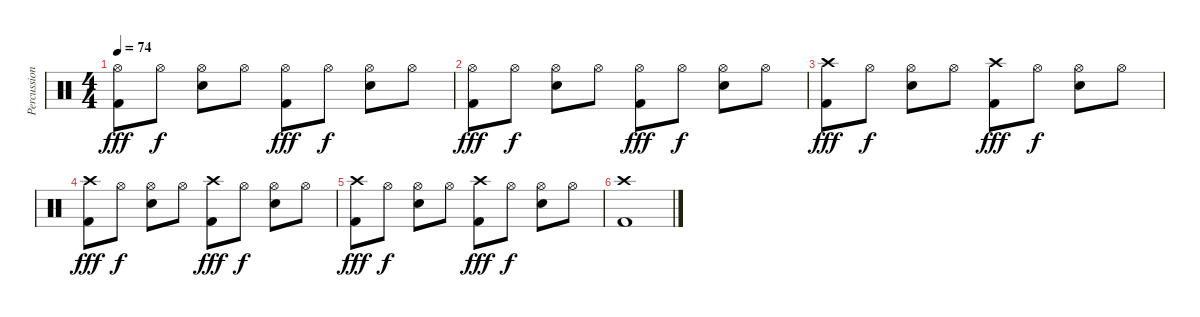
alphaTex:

\track ("Percussion" "Percussion") {instrument percussion}
\staff {score}
\articulation defaults
\ts (4 4)
\tempo 74
\clef neutral
\ks c
("Hi-Hat (open)" "Kick (hit) 2").8{dy fff} "Hi-Hat (open)".8{dy f} ("Hi-Hat (open)" "Snare (hit) 2").8 "Hi-Hat (open)".8 ("Hi-Hat (open)" "Kick (hit) 2").8{dy fff} "Hi-Hat (open)".8{dy f} ("Hi-Hat (open)" "Snare (hit) 2").8 "Hi-Hat (open)".8 |
("Hi-Hat (open)" "Kick (hit) 2").8{dy fff} "Hi-Hat (open)".8{dy f} ("Hi-Hat (open)" "Snare (hit) 2").8 "Hi-Hat (open)".8 ("Hi-Hat (open)" "Kick (hit) 2").8{dy fff} "Hi-Hat (open)".8{dy f} ("Hi-Hat (open)" "Snare (hit) 2").8 "Hi-Hat (open)".8 |
("Crash high (hit)" "Kick (hit) 2").8{dy fff} "Hi-Hat (open)".8{dy f} ("Hi-Hat (open)" "Snare (hit) 2").8 "Hi-Hat (open)".8 ("Crash high (hit)" "Kick (hit) 2").8{dy fff} "Hi-Hat (open)".8{dy f} ("Hi-Hat (open)" "Snare (hit) 2").8 "Hi-Hat (open)".8 |
("Crash high (hit)" "Kick (hit) 2").8{dy fff} "Hi-Hat (open)".8{dy f} ("Hi-Hat (open)" "Snare (hit) 2").8 "Hi-Hat (open)".8 ("Crash high (hit)" "Kick (hit) 2").8{dy fff} "Hi-Hat (open)".8{dy f} ("Hi-Hat (open)" "Snare (hit) 2").8 "Hi-Hat (open)".8 |
("Crash high (hit)" "Kick (hit) 2").8{dy fff} "Hi-Hat (open)".8{dy f} ("Hi-Hat (open)" "Snare (hit) 2").8 "Hi-Hat (open)".8 ("Crash high (hit)" "Kick (hit) 2").8{dy fff} "Hi-Hat (open)".8{dy f} ("Hi-Hat (open)" "Snare (hit) 2").8 "Hi-Hat (open)".8 |
("Crash high (hit)" "Kick (hit) 2").1
